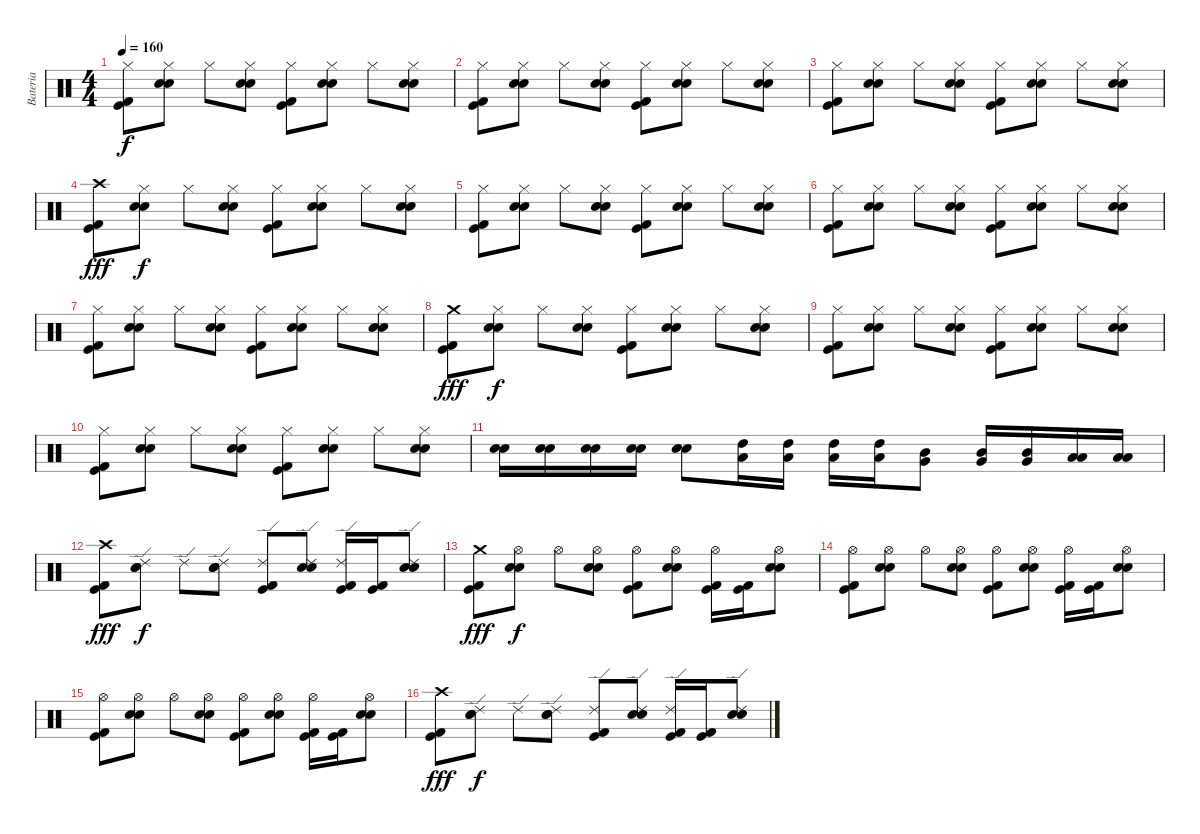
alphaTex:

\track ("Bateria" "Bateria") {instrument percussion}
\staff {score}
\articulation defaults
\ts (4 4)
\tempo 160
\clef neutral
\ks c
("Hi-Hat (closed)" "Kick (hit) 2" "Kick (hit)").8{dy f} ("Hi-Hat (closed)" "Electric Snare (hit)" "Snare (hit) 2").8 "Hi-Hat (closed)".8 ("Hi-Hat (closed)" "Electric Snare (hit)" "Snare (hit) 2").8 ("Hi-Hat (closed)" "Kick (hit) 2" "Kick (hit)").8 ("Hi-Hat (closed)" "Electric Snare (hit)" "Snare (hit) 2").8 "Hi-Hat (closed)".8 ("Hi-Hat (closed)" "Electric Snare (hit)" "Snare (hit) 2").8 |
("Hi-Hat (closed)" "Kick (hit) 2" "Kick (hit)").8 ("Hi-Hat (closed)" "Electric Snare (hit)" "Snare (hit) 2").8 "Hi-Hat (closed)".8 ("Hi-Hat (closed)" "Electric Snare (hit)" "Snare (hit) 2").8 ("Hi-Hat (closed)" "Kick (hit) 2" "Kick (hit)").8 ("Hi-Hat (closed)" "Electric Snare (hit)" "Snare (hit) 2").8 "Hi-Hat (closed)".8 ("Hi-Hat (closed)" "Electric Snare (hit)" "Snare (hit) 2").8 |
("Hi-Hat (closed)" "Kick (hit) 2" "Kick (hit)").8 ("Hi-Hat (closed)" "Electric Snare (hit)" "Snare (hit) 2").8 "Hi-Hat (closed)".8 ("Hi-Hat (closed)" "Electric Snare (hit)" "Snare (hit) 2").8 ("Hi-Hat (closed)" "Kick (hit) 2" "Kick (hit)").8 ("Hi-Hat (closed)" "Electric Snare (hit)" "Snare (hit) 2").8 "Hi-Hat (closed)".8 ("Hi-Hat (closed)" "Electric Snare (hit)" "Snare (hit) 2").8 |
("Crash high (hit)" "Kick (hit) 2" "Kick (hit)").8{dy fff} ("Hi-Hat (closed)" "Electric Snare (hit)" "Snare (hit) 2").8{dy f} "Hi-Hat (closed)".8 ("Hi-Hat (closed)" "Electric Snare (hit)" "Snare (hit) 2").8 ("Hi-Hat (closed)" "Kick (hit) 2" "Kick (hit)").8 ("Hi-Hat (closed)" "Electric Snare (hit)" "Snare (hit) 2").8 "Hi-Hat (closed)".8 ("Hi-Hat (closed)" "Electric Snare (hit)" "Snare (hit) 2").8 |
("Hi-Hat (closed)" "Kick (hit) 2" "Kick (hit)").8 ("Hi-Hat (closed)" "Electric Snare (hit)" "Snare (hit) 2").8 "Hi-Hat (closed)".8 ("Hi-Hat (closed)" "Electric Snare (hit)" "Snare (hit) 2").8 ("Hi-Hat (closed)" "Kick (hit) 2" "Kick (hit)").8 ("Hi-Hat (closed)" "Electric Snare (hit)" "Snare (hit) 2").8 "Hi-Hat (closed)".8 ("Hi-Hat (closed)" "Electric Snare (hit)" "Snare (hit) 2").8 |
("Hi-Hat (closed)" "Kick (hit) 2" "Kick (hit)").8 ("Hi-Hat (closed)" "Electric Snare (hit)" "Snare (hit) 2").8 "Hi-Hat (closed)".8 ("Hi-Hat (closed)" "Electric Snare (hit)" "Snare (hit) 2").8 ("Hi-Hat (closed)" "Kick (hit) 2" "Kick (hit)").8 ("Hi-Hat (closed)" "Electric Snare (hit)" "Snare (hit) 2").8 "Hi-Hat (closed)".8 ("Hi-Hat (closed)" "Electric Snare (hit)" "Snare (hit) 2").8 |
("Hi-Hat (closed)" "Kick (hit) 2" "Kick (hit)").8 ("Hi-Hat (closed)" "Electric Snare (hit)" "Snare (hit) 2").8 "Hi-Hat (closed)".8 ("Hi-Hat (closed)" "Electric Snare (hit)" "Snare (hit) 2").8 ("Hi-Hat (closed)" "Kick (hit) 2" "Kick (hit)").8 ("Hi-Hat (closed)" "Electric Snare (hit)" "Snare (hit) 2").8 "Hi-Hat (closed)".8 ("Hi-Hat (closed)" "Electric Snare (hit)" "Snare (hit) 2").8 |
("Crash medium (hit)" "Kick (hit) 2" "Kick (hit)").8{dy fff} ("Hi-Hat (closed)" "Electric Snare (hit)" "Snare (hit) 2").8{dy f} "Hi-Hat (closed)".8 ("Hi-Hat (closed)" "Electric Snare (hit)" "Snare (hit) 2").8 ("Hi-Hat (closed)" "Kick (hit) 2" "Kick (hit)").8 ("Hi-Hat (closed)" "Electric Snare (hit)" "Snare (hit) 2").8 "Hi-Hat (closed)".8 ("Hi-Hat (closed)" "Electric Snare (hit)" "Snare (hit) 2").8 |
("Hi-Hat (closed)" "Kick (hit) 2" "Kick (hit)").8 ("Hi-Hat (closed)" "Electric Snare (hit)" "Snare (hit) 2").8 "Hi-Hat (closed)".8 ("Hi-Hat (closed)" "Electric Snare (hit)" "Snare (hit) 2").8 ("Hi-Hat (closed)" "Kick (hit) 2" "Kick (hit)").8 ("Hi-Hat (closed)" "Electric Snare (hit)" "Snare (hit) 2").8 "Hi-Hat (closed)".8 ("Hi-Hat (closed)" "Electric Snare (hit)" "Snare (hit) 2").8 |
("Hi-Hat (closed)" "Kick (hit) 2" "Kick (hit)").8 ("Hi-Hat (closed)" "Electric Snare (hit)" "Snare (hit) 2").8 "Hi-Hat (closed)".8 ("Hi-Hat (closed)" "Electric Snare (hit)" "Snare (hit) 2").8 ("Hi-Hat (closed)" "Kick (hit) 2" "Kick (hit)").8 ("Hi-Hat (closed)" "Electric Snare (hit)" "Snare (hit) 2").8 "Hi-Hat (closed)".8 ("Hi-Hat (closed)" "Electric Snare (hit)" "Snare (hit) 2").8 |
("Electric Snare (hit)" "Snare (hit) 2").16 ("Electric Snare (hit)" "Snare (hit) 2").16 ("Electric Snare (hit)" "Snare (hit) 2").16 ("Electric Snare (hit)" "Snare (hit) 2").16 ("Electric Snare (hit)" "Snare (hit) 2").8 ("High Tom (hit)" "Low Tom (hit)").16 ("High Tom (hit)" "Low Tom (hit)").16 ("High Tom (hit)" "Low Tom (hit)").16 ("High Tom (hit)" "Low Tom (hit)").16 ("Mid Tom (hit)" "Very Low Tom (hit)").8 ("Mid Tom (hit)" "Very Low Tom (hit)").16 ("Mid Tom (hit)" "Very Low Tom (hit)").16 ("Low Tom (hit)" "Low Floor Tom (hit)").16 ("Low Tom (hit)" "Low Floor Tom (hit)").16 |
("Crash high (hit)" "Kick (hit) 2" "Kick (hit)").8{dy fff} ("Ride (edge) 2" "Electric Snare (hit)" "Snare (hit) 2").8{dy f} "Ride (edge) 2".8 ("Ride (edge) 2" "Electric Snare (hit)" "Snare (hit) 2").8 ("Ride (edge) 2" "Kick (hit) 2" "Kick (hit)").8 ("Ride (edge) 2" "Electric Snare (hit)" "Snare (hit) 2").8 ("Ride (edge) 2" "Kick (hit) 2" "Kick (hit)").16 ("Kick (hit) 2" "Kick (hit)").16 ("Ride (edge) 2" "Electric Snare (hit)" "Snare (hit) 2").8 |
("Crash medium (hit)" "Kick (hit) 2" "Kick (hit)").8{dy fff} ("Hi-Hat (open)" "Electric Snare (hit)" "Snare (hit) 2").8{dy f} "Hi-Hat (open)".8 ("Hi-Hat (open)" "Electric Snare (hit)" "Snare (hit) 2").8 ("Hi-Hat (open)" "Kick (hit) 2" "Kick (hit)").8 ("Hi-Hat (open)" "Electric Snare (hit)" "Snare (hit) 2").8 ("Hi-Hat (open)" "Kick (hit) 2" "Kick (hit)").16 ("Kick (hit) 2" "Kick (hit)").16 ("Hi-Hat (open)" "Electric Snare (hit)" "Snare (hit) 2").8 |
("Hi-Hat (open)" "Kick (hit) 2" "Kick (hit)").8 ("Hi-Hat (open)" "Electric Snare (hit)" "Snare (hit) 2").8 "Hi-Hat (open)".8 ("Hi-Hat (open)" "Electric Snare (hit)" "Snare (hit) 2").8 ("Hi-Hat (open)" "Kick (hit) 2" "Kick (hit)").8 ("Hi-Hat (open)" "Electric Snare (hit)" "Snare (hit) 2").8 ("Hi-Hat (open)" "Kick (hit) 2" "Kick (hit)").16 ("Kick (hit) 2" "Kick (hit)").16 ("Hi-Hat (open)" "Electric Snare (hit)" "Snare (hit) 2").8 |
("Hi-Hat (open)" "Kick (hit) 2" "Kick (hit)").8 ("Hi-Hat (open)" "Electric Snare (hit)" "Snare (hit) 2").8 "Hi-Hat (open)".8 ("Hi-Hat (open)" "Electric Snare (hit)" "Snare (hit) 2").8 ("Hi-Hat (open)" "Kick (hit) 2" "Kick (hit)").8 ("Hi-Hat (open)" "Electric Snare (hit)" "Snare (hit) 2").8 ("Hi-Hat (open)" "Kick (hit) 2" "Kick (hit)").16 ("Kick (hit) 2" "Kick (hit)").16 ("Hi-Hat (open)" "Electric Snare (hit)" "Snare (hit) 2").8 |
("Crash high (hit)" "Kick (hit) 2" "Kick (hit)").8{dy fff} ("Ride (edge) 2" "Electric Snare (hit)" "Snare (hit) 2").8{dy f} "Ride (edge) 2".8 ("Ride (edge) 2" "Electric Snare (hit)" "Snare (hit) 2").8 ("Ride (edge) 2" "Kick (hit) 2" "Kick (hit)").8 ("Ride (edge) 2" "Electric Snare (hit)" "Snare (hit) 2").8 ("Ride (edge) 2" "Kick (hit) 2" "Kick (hit)").16 ("Kick (hit) 2" "Kick (hit)").16 ("Ride (edge) 2" "Electric Snare (hit)" "Snare (hit) 2").8
